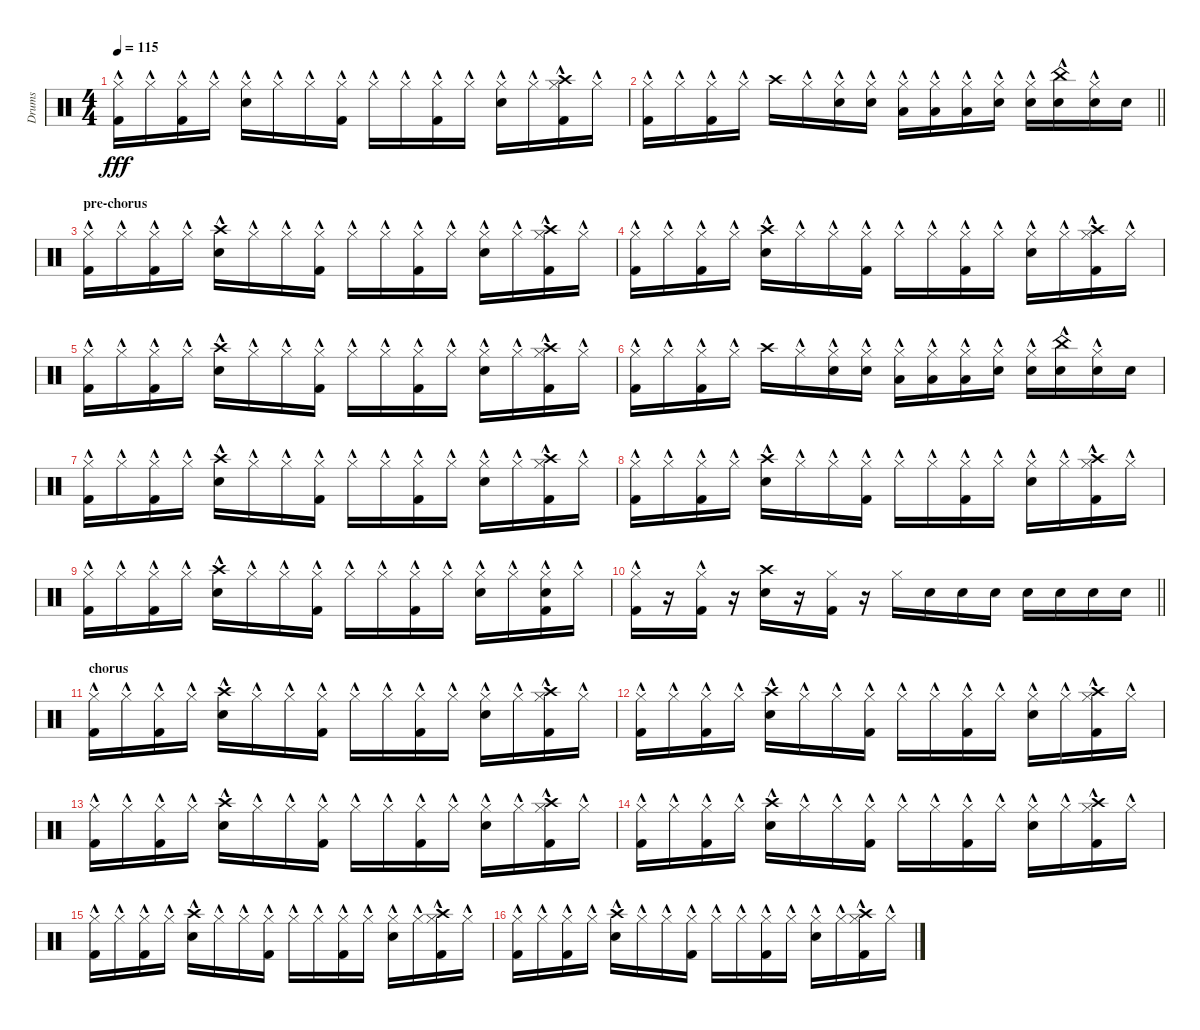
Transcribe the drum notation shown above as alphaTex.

\track ("Drums" "Drums") {instrument percussion}
\staff {score}
\articulation defaults
\ts (4 4)
\tempo 115
\clef neutral
\ks c
("Kick (hit) 2"{hac} "Hi-Hat (closed)").16{dy fff} "Hi-Hat (closed)"{hac}.16 ("Kick (hit) 2"{hac} "Hi-Hat (closed)").16 "Hi-Hat (closed)"{hac}.16 ("Electric Snare (hit)"{hac} "Hi-Hat (closed)").16 "Hi-Hat (closed)"{hac}.16 "Hi-Hat (closed)"{hac}.16 ("Kick (hit) 2" "Hi-Hat (closed)"{hac}).16 "Hi-Hat (closed)"{hac}.16 "Hi-Hat (closed)"{hac}.16 ("Kick (hit) 2" "Hi-Hat (closed)"{hac}).16 "Hi-Hat (closed)"{hac}.16 ("Electric Snare (hit)" "Hi-Hat (closed)"{hac}).16 "Hi-Hat (closed)"{hac}.16 ("Crash high (hit)" "Kick (hit) 2" "Hi-Hat (closed)"{hac}).16 "Hi-Hat (closed)"{hac}.16 |
\barLineRight lightlight
("Kick (hit) 2"{hac} "Hi-Hat (closed)").16 "Hi-Hat (closed)"{hac}.16 ("Kick (hit) 2"{hac} "Hi-Hat (closed)").16 "Hi-Hat (closed)"{hac}.16 "Crash high (hit)".16 "Hi-Hat (closed)"{hac}.16 ("Electric Snare (hit)" "Hi-Hat (closed)"{hac}).16 ("Electric Snare (hit)" "Hi-Hat (closed)"{hac}).16 ("Low Floor Tom (hit)" "Hi-Hat (closed)"{hac}).16 ("Low Floor Tom (hit)" "Hi-Hat (closed)"{hac}).16 ("Low Floor Tom (hit)" "Hi-Hat (closed)"{hac}).16 ("Electric Snare (hit)" "Hi-Hat (closed)"{hac}).16 ("Electric Snare (hit)" "Hi-Hat (closed)"{hac}).16 ("Electric Snare (hit)" "China (hit)"{hac}).16 ("Electric Snare (hit)" "Hi-Hat (closed)"{hac}).16 "Electric Snare (hit)".16 |
\section ("" "pre-chorus")
("Kick (hit) 2"{hac} "Hi-Hat (closed)").16 "Hi-Hat (closed)"{hac}.16 ("Kick (hit) 2"{hac} "Hi-Hat (closed)").16 "Hi-Hat (closed)"{hac}.16 ("Electric Snare (hit)"{hac} "Crash high (hit)").16 "Hi-Hat (closed)"{hac}.16 "Hi-Hat (closed)"{hac}.16 ("Kick (hit) 2" "Hi-Hat (closed)"{hac}).16 "Hi-Hat (closed)"{hac}.16 "Hi-Hat (closed)"{hac}.16 ("Kick (hit) 2" "Hi-Hat (closed)"{hac}).16 "Hi-Hat (closed)"{hac}.16 ("Electric Snare (hit)" "Hi-Hat (closed)"{hac}).16 "Hi-Hat (closed)"{hac}.16 ("Crash high (hit)" "Kick (hit) 2" "Hi-Hat (closed)"{hac}).16 "Hi-Hat (closed)"{hac}.16 |
("Kick (hit) 2"{hac} "Hi-Hat (closed)").16 "Hi-Hat (closed)"{hac}.16 ("Kick (hit) 2"{hac} "Hi-Hat (closed)").16 "Hi-Hat (closed)"{hac}.16 ("Electric Snare (hit)"{hac} "Crash high (hit)").16 "Hi-Hat (closed)"{hac}.16 "Hi-Hat (closed)"{hac}.16 ("Kick (hit) 2" "Hi-Hat (closed)"{hac}).16 "Hi-Hat (closed)"{hac}.16 "Hi-Hat (closed)"{hac}.16 ("Kick (hit) 2" "Hi-Hat (closed)"{hac}).16 "Hi-Hat (closed)"{hac}.16 ("Electric Snare (hit)" "Hi-Hat (closed)"{hac}).16 "Hi-Hat (closed)"{hac}.16 ("Crash high (hit)" "Kick (hit) 2" "Hi-Hat (closed)"{hac}).16 "Hi-Hat (closed)"{hac}.16 |
("Kick (hit) 2"{hac} "Hi-Hat (closed)").16 "Hi-Hat (closed)"{hac}.16 ("Kick (hit) 2"{hac} "Hi-Hat (closed)").16 "Hi-Hat (closed)"{hac}.16 ("Electric Snare (hit)"{hac} "Crash high (hit)").16 "Hi-Hat (closed)"{hac}.16 "Hi-Hat (closed)"{hac}.16 ("Kick (hit) 2" "Hi-Hat (closed)"{hac}).16 "Hi-Hat (closed)"{hac}.16 "Hi-Hat (closed)"{hac}.16 ("Kick (hit) 2" "Hi-Hat (closed)"{hac}).16 "Hi-Hat (closed)"{hac}.16 ("Electric Snare (hit)" "Hi-Hat (closed)"{hac}).16 "Hi-Hat (closed)"{hac}.16 ("Crash high (hit)" "Kick (hit) 2" "Hi-Hat (closed)"{hac}).16 "Hi-Hat (closed)"{hac}.16 |
("Kick (hit) 2"{hac} "Hi-Hat (closed)").16 "Hi-Hat (closed)"{hac}.16 ("Kick (hit) 2"{hac} "Hi-Hat (closed)").16 "Hi-Hat (closed)"{hac}.16 "Crash high (hit)".16 "Hi-Hat (closed)"{hac}.16 ("Electric Snare (hit)" "Hi-Hat (closed)"{hac}).16 ("Electric Snare (hit)" "Hi-Hat (closed)"{hac}).16 ("Low Floor Tom (hit)" "Hi-Hat (closed)"{hac}).16 ("Low Floor Tom (hit)" "Hi-Hat (closed)"{hac}).16 ("Low Floor Tom (hit)" "Hi-Hat (closed)"{hac}).16 ("Electric Snare (hit)" "Hi-Hat (closed)"{hac}).16 ("Electric Snare (hit)" "Hi-Hat (closed)"{hac}).16 ("Electric Snare (hit)" "China (hit)"{hac}).16 ("Electric Snare (hit)" "Hi-Hat (closed)"{hac}).16 "Electric Snare (hit)".16 |
("Kick (hit) 2"{hac} "Hi-Hat (closed)").16 "Hi-Hat (closed)"{hac}.16 ("Kick (hit) 2"{hac} "Hi-Hat (closed)").16 "Hi-Hat (closed)"{hac}.16 ("Electric Snare (hit)"{hac} "Crash high (hit)").16 "Hi-Hat (closed)"{hac}.16 "Hi-Hat (closed)"{hac}.16 ("Kick (hit) 2" "Hi-Hat (closed)"{hac}).16 "Hi-Hat (closed)"{hac}.16 "Hi-Hat (closed)"{hac}.16 ("Kick (hit) 2" "Hi-Hat (closed)"{hac}).16 "Hi-Hat (closed)"{hac}.16 ("Electric Snare (hit)" "Hi-Hat (closed)"{hac}).16 "Hi-Hat (closed)"{hac}.16 ("Crash high (hit)" "Kick (hit) 2" "Hi-Hat (closed)"{hac}).16 "Hi-Hat (closed)"{hac}.16 |
("Kick (hit) 2"{hac} "Hi-Hat (closed)").16 "Hi-Hat (closed)"{hac}.16 ("Kick (hit) 2"{hac} "Hi-Hat (closed)").16 "Hi-Hat (closed)"{hac}.16 ("Electric Snare (hit)"{hac} "Crash high (hit)").16 "Hi-Hat (closed)"{hac}.16 "Hi-Hat (closed)"{hac}.16 ("Kick (hit) 2" "Hi-Hat (closed)"{hac}).16 "Hi-Hat (closed)"{hac}.16 "Hi-Hat (closed)"{hac}.16 ("Kick (hit) 2" "Hi-Hat (closed)"{hac}).16 "Hi-Hat (closed)"{hac}.16 ("Electric Snare (hit)" "Hi-Hat (closed)"{hac}).16 "Hi-Hat (closed)"{hac}.16 ("Crash high (hit)" "Kick (hit) 2" "Hi-Hat (closed)"{hac}).16 "Hi-Hat (closed)"{hac}.16 |
("Kick (hit) 2"{hac} "Hi-Hat (closed)").16 "Hi-Hat (closed)"{hac}.16 ("Kick (hit) 2"{hac} "Hi-Hat (closed)").16 "Hi-Hat (closed)"{hac}.16 ("Electric Snare (hit)"{hac} "Crash high (hit)").16 "Hi-Hat (closed)"{hac}.16 "Hi-Hat (closed)"{hac}.16 ("Kick (hit) 2" "Hi-Hat (closed)"{hac}).16 "Hi-Hat (closed)"{hac}.16 "Hi-Hat (closed)"{hac}.16 ("Kick (hit) 2" "Hi-Hat (closed)"{hac}).16 "Hi-Hat (closed)"{hac}.16 ("Electric Snare (hit)" "Hi-Hat (closed)"{hac}).16 "Hi-Hat (closed)"{hac}.16 ("Snare (hit) 2" "Kick (hit) 2" "Hi-Hat (closed)"{hac}).16 "Hi-Hat (closed)"{hac}.16 |
\barLineRight lightlight
("Kick (hit) 2"{hac} "Hi-Hat (closed)").16 r.16 ("Kick (hit) 2"{hac} "Hi-Hat (closed)").16 r.16 ("Electric Snare (hit)" "Crash high (hit)").16 r.16 ("Kick (hit) 2" "Hi-Hat (closed)").16 r.16 "Hi-Hat (closed)".16 "Electric Snare (hit)".16 "Electric Snare (hit)".16 "Electric Snare (hit)".16 "Electric Snare (hit)".16 "Electric Snare (hit)".16 "Electric Snare (hit)".16 "Electric Snare (hit)".16 |
\section ("" "chorus")
("Kick (hit) 2"{hac} "Hi-Hat (closed)").16 "Hi-Hat (closed)"{hac}.16 ("Kick (hit) 2"{hac} "Hi-Hat (closed)").16 "Hi-Hat (closed)"{hac}.16 ("Electric Snare (hit)"{hac} "Crash high (hit)").16 "Hi-Hat (closed)"{hac}.16 "Hi-Hat (closed)"{hac}.16 ("Kick (hit) 2" "Hi-Hat (closed)"{hac}).16 "Hi-Hat (closed)"{hac}.16 "Hi-Hat (closed)"{hac}.16 ("Kick (hit) 2" "Hi-Hat (closed)"{hac}).16 "Hi-Hat (closed)"{hac}.16 ("Electric Snare (hit)" "Hi-Hat (closed)"{hac}).16 "Hi-Hat (closed)"{hac}.16 ("Crash high (hit)" "Kick (hit) 2" "Hi-Hat (closed)"{hac}).16 "Hi-Hat (closed)"{hac}.16 |
("Kick (hit) 2"{hac} "Hi-Hat (closed)").16 "Hi-Hat (closed)"{hac}.16 ("Kick (hit) 2"{hac} "Hi-Hat (closed)").16 "Hi-Hat (closed)"{hac}.16 ("Electric Snare (hit)"{hac} "Crash high (hit)").16 "Hi-Hat (closed)"{hac}.16 "Hi-Hat (closed)"{hac}.16 ("Kick (hit) 2" "Hi-Hat (closed)"{hac}).16 "Hi-Hat (closed)"{hac}.16 "Hi-Hat (closed)"{hac}.16 ("Kick (hit) 2" "Hi-Hat (closed)"{hac}).16 "Hi-Hat (closed)"{hac}.16 ("Electric Snare (hit)" "Hi-Hat (closed)"{hac}).16 "Hi-Hat (closed)"{hac}.16 ("Crash high (hit)" "Kick (hit) 2" "Hi-Hat (closed)"{hac}).16 "Hi-Hat (closed)"{hac}.16 |
("Kick (hit) 2"{hac} "Hi-Hat (closed)").16 "Hi-Hat (closed)"{hac}.16 ("Kick (hit) 2"{hac} "Hi-Hat (closed)").16 "Hi-Hat (closed)"{hac}.16 ("Electric Snare (hit)"{hac} "Crash high (hit)").16 "Hi-Hat (closed)"{hac}.16 "Hi-Hat (closed)"{hac}.16 ("Kick (hit) 2" "Hi-Hat (closed)"{hac}).16 "Hi-Hat (closed)"{hac}.16 "Hi-Hat (closed)"{hac}.16 ("Kick (hit) 2" "Hi-Hat (closed)"{hac}).16 "Hi-Hat (closed)"{hac}.16 ("Electric Snare (hit)" "Hi-Hat (closed)"{hac}).16 "Hi-Hat (closed)"{hac}.16 ("Crash high (hit)" "Kick (hit) 2" "Hi-Hat (closed)"{hac}).16 "Hi-Hat (closed)"{hac}.16 |
("Kick (hit) 2"{hac} "Hi-Hat (closed)").16 "Hi-Hat (closed)"{hac}.16 ("Kick (hit) 2"{hac} "Hi-Hat (closed)").16 "Hi-Hat (closed)"{hac}.16 ("Electric Snare (hit)"{hac} "Crash high (hit)").16 "Hi-Hat (closed)"{hac}.16 "Hi-Hat (closed)"{hac}.16 ("Kick (hit) 2" "Hi-Hat (closed)"{hac}).16 "Hi-Hat (closed)"{hac}.16 "Hi-Hat (closed)"{hac}.16 ("Kick (hit) 2" "Hi-Hat (closed)"{hac}).16 "Hi-Hat (closed)"{hac}.16 ("Electric Snare (hit)" "Hi-Hat (closed)"{hac}).16 "Hi-Hat (closed)"{hac}.16 ("Crash high (hit)" "Kick (hit) 2" "Hi-Hat (closed)"{hac}).16 "Hi-Hat (closed)"{hac}.16 |
("Kick (hit) 2"{hac} "Hi-Hat (closed)").16 "Hi-Hat (closed)"{hac}.16 ("Kick (hit) 2"{hac} "Hi-Hat (closed)").16 "Hi-Hat (closed)"{hac}.16 ("Electric Snare (hit)"{hac} "Crash high (hit)").16 "Hi-Hat (closed)"{hac}.16 "Hi-Hat (closed)"{hac}.16 ("Kick (hit) 2" "Hi-Hat (closed)"{hac}).16 "Hi-Hat (closed)"{hac}.16 "Hi-Hat (closed)"{hac}.16 ("Kick (hit) 2" "Hi-Hat (closed)"{hac}).16 "Hi-Hat (closed)"{hac}.16 ("Electric Snare (hit)" "Hi-Hat (closed)"{hac}).16 "Hi-Hat (closed)"{hac}.16 ("Crash high (hit)" "Kick (hit) 2" "Hi-Hat (closed)"{hac}).16 "Hi-Hat (closed)"{hac}.16 |
("Kick (hit) 2"{hac} "Hi-Hat (closed)").16 "Hi-Hat (closed)"{hac}.16 ("Kick (hit) 2"{hac} "Hi-Hat (closed)").16 "Hi-Hat (closed)"{hac}.16 ("Electric Snare (hit)"{hac} "Crash high (hit)").16 "Hi-Hat (closed)"{hac}.16 "Hi-Hat (closed)"{hac}.16 ("Kick (hit) 2" "Hi-Hat (closed)"{hac}).16 "Hi-Hat (closed)"{hac}.16 "Hi-Hat (closed)"{hac}.16 ("Kick (hit) 2" "Hi-Hat (closed)"{hac}).16 "Hi-Hat (closed)"{hac}.16 ("Electric Snare (hit)" "Hi-Hat (closed)"{hac}).16 "Hi-Hat (closed)"{hac}.16 ("Crash high (hit)" "Kick (hit) 2" "Hi-Hat (closed)"{hac}).16 "Hi-Hat (closed)"{hac}.16
